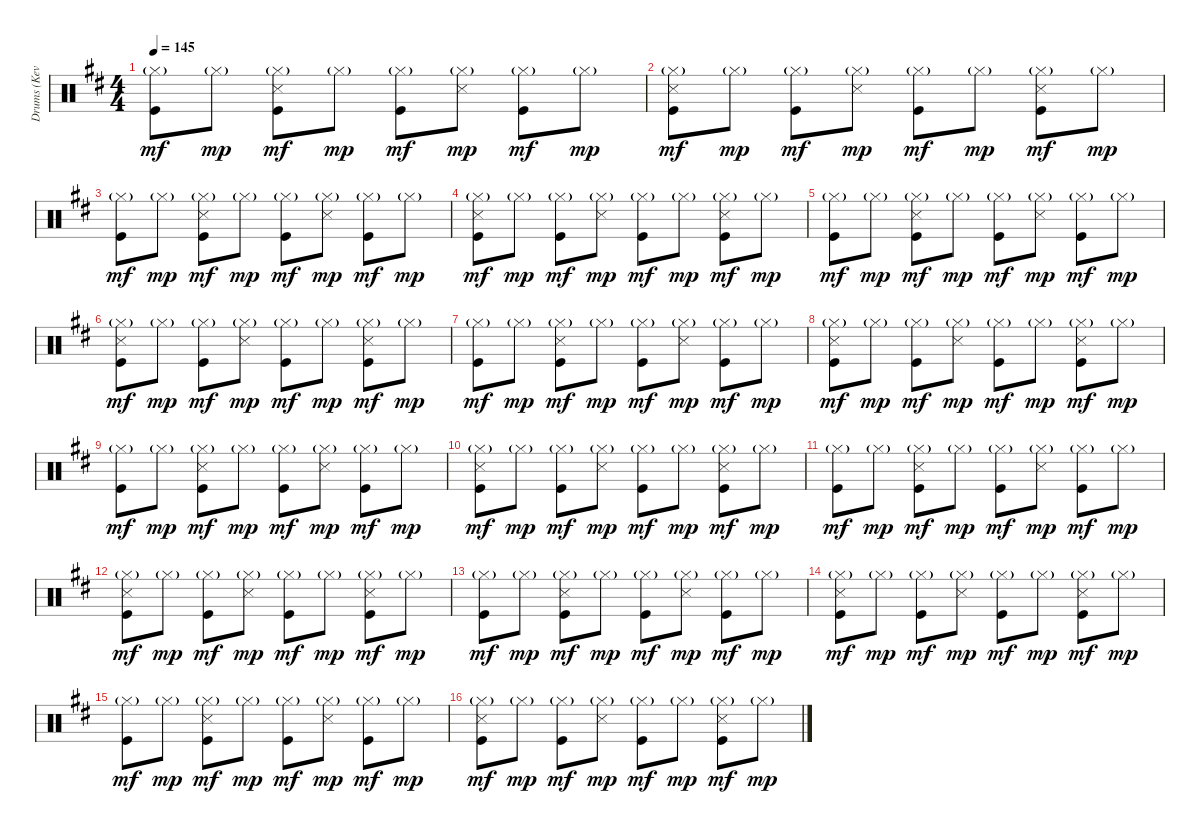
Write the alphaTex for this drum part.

\track ("Drums (Kevin Haskins)" "Drums (Kev") {instrument percussion}
\staff {score}
\articulation defaults
\ts (4 4)
\tempo 145
\clef neutral
\ks d
("Hi-Hat (closed)"{g} "Kick (hit)").8{dy mf} "Hi-Hat (closed)"{g}.8{dy mp} ("Hi-Hat (closed)"{g} "Snare (side stick) 3" "Kick (hit)").8{dy mf} "Hi-Hat (closed)"{g}.8{dy mp} ("Hi-Hat (closed)"{g} "Kick (hit)").8{dy mf} ("Hi-Hat (closed)"{g} "Snare (side stick) 3").8{dy mp} ("Hi-Hat (closed)"{g} "Kick (hit)").8{dy mf} "Hi-Hat (closed)"{g}.8{dy mp} |
("Hi-Hat (closed)"{g} "Snare (side stick) 3" "Kick (hit)").8{dy mf} "Hi-Hat (closed)"{g}.8{dy mp} ("Hi-Hat (closed)"{g} "Kick (hit)").8{dy mf} ("Hi-Hat (closed)"{g} "Snare (side stick) 3").8{dy mp} ("Hi-Hat (closed)"{g} "Kick (hit)").8{dy mf} "Hi-Hat (closed)"{g}.8{dy mp} ("Hi-Hat (closed)"{g} "Snare (side stick) 3" "Kick (hit)").8{dy mf} "Hi-Hat (closed)"{g}.8{dy mp} |
("Hi-Hat (closed)"{g} "Kick (hit)").8{dy mf} "Hi-Hat (closed)"{g}.8{dy mp} ("Hi-Hat (closed)"{g} "Snare (side stick) 3" "Kick (hit)").8{dy mf} "Hi-Hat (closed)"{g}.8{dy mp} ("Hi-Hat (closed)"{g} "Kick (hit)").8{dy mf} ("Hi-Hat (closed)"{g} "Snare (side stick) 3").8{dy mp} ("Hi-Hat (closed)"{g} "Kick (hit)").8{dy mf} "Hi-Hat (closed)"{g}.8{dy mp} |
("Hi-Hat (closed)"{g} "Snare (side stick) 3" "Kick (hit)").8{dy mf} "Hi-Hat (closed)"{g}.8{dy mp} ("Hi-Hat (closed)"{g} "Kick (hit)").8{dy mf} ("Hi-Hat (closed)"{g} "Snare (side stick) 3").8{dy mp} ("Hi-Hat (closed)"{g} "Kick (hit)").8{dy mf} "Hi-Hat (closed)"{g}.8{dy mp} ("Hi-Hat (closed)"{g} "Snare (side stick) 3" "Kick (hit)").8{dy mf} "Hi-Hat (closed)"{g}.8{dy mp} |
("Hi-Hat (closed)"{g} "Kick (hit)").8{dy mf} "Hi-Hat (closed)"{g}.8{dy mp} ("Hi-Hat (closed)"{g} "Snare (side stick) 3" "Kick (hit)").8{dy mf} "Hi-Hat (closed)"{g}.8{dy mp} ("Hi-Hat (closed)"{g} "Kick (hit)").8{dy mf} ("Hi-Hat (closed)"{g} "Snare (side stick) 3").8{dy mp} ("Hi-Hat (closed)"{g} "Kick (hit)").8{dy mf} "Hi-Hat (closed)"{g}.8{dy mp} |
("Hi-Hat (closed)"{g} "Snare (side stick) 3" "Kick (hit)").8{dy mf} "Hi-Hat (closed)"{g}.8{dy mp} ("Hi-Hat (closed)"{g} "Kick (hit)").8{dy mf} ("Hi-Hat (closed)"{g} "Snare (side stick) 3").8{dy mp} ("Hi-Hat (closed)"{g} "Kick (hit)").8{dy mf} "Hi-Hat (closed)"{g}.8{dy mp} ("Hi-Hat (closed)"{g} "Snare (side stick) 3" "Kick (hit)").8{dy mf} "Hi-Hat (closed)"{g}.8{dy mp} |
("Hi-Hat (closed)"{g} "Kick (hit)").8{dy mf} "Hi-Hat (closed)"{g}.8{dy mp} ("Hi-Hat (closed)"{g} "Snare (side stick) 3" "Kick (hit)").8{dy mf} "Hi-Hat (closed)"{g}.8{dy mp} ("Hi-Hat (closed)"{g} "Kick (hit)").8{dy mf} ("Hi-Hat (closed)"{g} "Snare (side stick) 3").8{dy mp} ("Hi-Hat (closed)"{g} "Kick (hit)").8{dy mf} "Hi-Hat (closed)"{g}.8{dy mp} |
("Hi-Hat (closed)"{g} "Snare (side stick) 3" "Kick (hit)").8{dy mf} "Hi-Hat (closed)"{g}.8{dy mp} ("Hi-Hat (closed)"{g} "Kick (hit)").8{dy mf} ("Hi-Hat (closed)"{g} "Snare (side stick) 3").8{dy mp} ("Hi-Hat (closed)"{g} "Kick (hit)").8{dy mf} "Hi-Hat (closed)"{g}.8{dy mp} ("Hi-Hat (closed)"{g} "Snare (side stick) 3" "Kick (hit)").8{dy mf} "Hi-Hat (closed)"{g}.8{dy mp} |
("Hi-Hat (closed)"{g} "Kick (hit)").8{dy mf} "Hi-Hat (closed)"{g}.8{dy mp} ("Hi-Hat (closed)"{g} "Snare (side stick) 3" "Kick (hit)").8{dy mf} "Hi-Hat (closed)"{g}.8{dy mp} ("Hi-Hat (closed)"{g} "Kick (hit)").8{dy mf} ("Hi-Hat (closed)"{g} "Snare (side stick) 3").8{dy mp} ("Hi-Hat (closed)"{g} "Kick (hit)").8{dy mf} "Hi-Hat (closed)"{g}.8{dy mp} |
("Hi-Hat (closed)"{g} "Snare (side stick) 3" "Kick (hit)").8{dy mf} "Hi-Hat (closed)"{g}.8{dy mp} ("Hi-Hat (closed)"{g} "Kick (hit)").8{dy mf} ("Hi-Hat (closed)"{g} "Snare (side stick) 3").8{dy mp} ("Hi-Hat (closed)"{g} "Kick (hit)").8{dy mf} "Hi-Hat (closed)"{g}.8{dy mp} ("Hi-Hat (closed)"{g} "Snare (side stick) 3" "Kick (hit)").8{dy mf} "Hi-Hat (closed)"{g}.8{dy mp} |
("Hi-Hat (closed)"{g} "Kick (hit)").8{dy mf} "Hi-Hat (closed)"{g}.8{dy mp} ("Hi-Hat (closed)"{g} "Snare (side stick) 3" "Kick (hit)").8{dy mf} "Hi-Hat (closed)"{g}.8{dy mp} ("Hi-Hat (closed)"{g} "Kick (hit)").8{dy mf} ("Hi-Hat (closed)"{g} "Snare (side stick) 3").8{dy mp} ("Hi-Hat (closed)"{g} "Kick (hit)").8{dy mf} "Hi-Hat (closed)"{g}.8{dy mp} |
("Hi-Hat (closed)"{g} "Snare (side stick) 3" "Kick (hit)").8{dy mf} "Hi-Hat (closed)"{g}.8{dy mp} ("Hi-Hat (closed)"{g} "Kick (hit)").8{dy mf} ("Hi-Hat (closed)"{g} "Snare (side stick) 3").8{dy mp} ("Hi-Hat (closed)"{g} "Kick (hit)").8{dy mf} "Hi-Hat (closed)"{g}.8{dy mp} ("Hi-Hat (closed)"{g} "Snare (side stick) 3" "Kick (hit)").8{dy mf} "Hi-Hat (closed)"{g}.8{dy mp} |
("Hi-Hat (closed)"{g} "Kick (hit)").8{dy mf} "Hi-Hat (closed)"{g}.8{dy mp} ("Hi-Hat (closed)"{g} "Snare (side stick) 3" "Kick (hit)").8{dy mf} "Hi-Hat (closed)"{g}.8{dy mp} ("Hi-Hat (closed)"{g} "Kick (hit)").8{dy mf} ("Hi-Hat (closed)"{g} "Snare (side stick) 3").8{dy mp} ("Hi-Hat (closed)"{g} "Kick (hit)").8{dy mf} "Hi-Hat (closed)"{g}.8{dy mp} |
("Hi-Hat (closed)"{g} "Snare (side stick) 3" "Kick (hit)").8{dy mf} "Hi-Hat (closed)"{g}.8{dy mp} ("Hi-Hat (closed)"{g} "Kick (hit)").8{dy mf} ("Hi-Hat (closed)"{g} "Snare (side stick) 3").8{dy mp} ("Hi-Hat (closed)"{g} "Kick (hit)").8{dy mf} "Hi-Hat (closed)"{g}.8{dy mp} ("Hi-Hat (closed)"{g} "Snare (side stick) 3" "Kick (hit)").8{dy mf} "Hi-Hat (closed)"{g}.8{dy mp} |
("Hi-Hat (closed)"{g} "Kick (hit)").8{dy mf} "Hi-Hat (closed)"{g}.8{dy mp} ("Hi-Hat (closed)"{g} "Snare (side stick) 3" "Kick (hit)").8{dy mf} "Hi-Hat (closed)"{g}.8{dy mp} ("Hi-Hat (closed)"{g} "Kick (hit)").8{dy mf} ("Hi-Hat (closed)"{g} "Snare (side stick) 3").8{dy mp} ("Hi-Hat (closed)"{g} "Kick (hit)").8{dy mf} "Hi-Hat (closed)"{g}.8{dy mp} |
("Hi-Hat (closed)"{g} "Snare (side stick) 3" "Kick (hit)").8{dy mf} "Hi-Hat (closed)"{g}.8{dy mp} ("Hi-Hat (closed)"{g} "Kick (hit)").8{dy mf} ("Hi-Hat (closed)"{g} "Snare (side stick) 3").8{dy mp} ("Hi-Hat (closed)"{g} "Kick (hit)").8{dy mf} "Hi-Hat (closed)"{g}.8{dy mp} ("Hi-Hat (closed)"{g} "Snare (side stick) 3" "Kick (hit)").8{dy mf} "Hi-Hat (closed)"{g}.8{dy mp}
